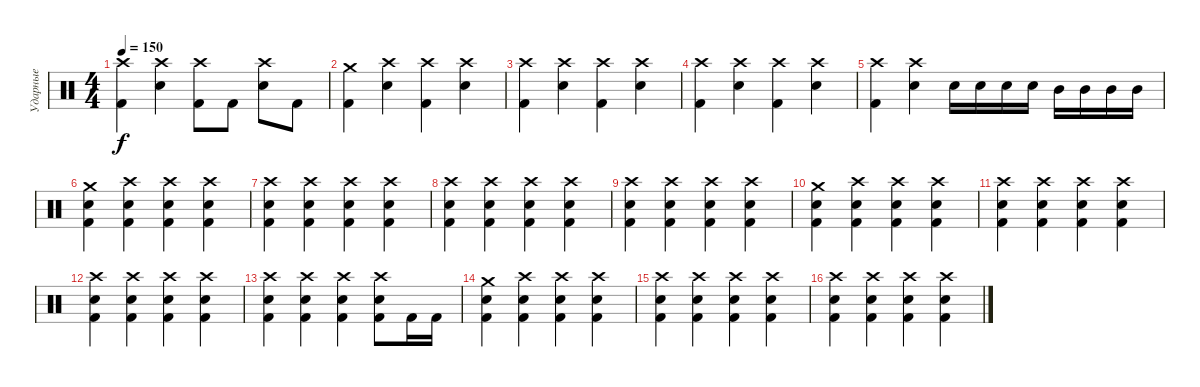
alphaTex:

\track ("Ударные" "Ударные") {instrument percussion}
\staff {score}
\articulation defaults
\ts (4 4)
\tempo 150
\clef neutral
\ks c
("Crash high (hit)" "Kick (hit) 2").4{dy f} ("Crash high (hit)" "Electric Snare (hit)").4 ("Crash high (hit)" "Kick (hit) 2").8 "Kick (hit) 2".8 ("Crash high (hit)" "Electric Snare (hit)").8 "Kick (hit) 2".8 |
("Crash medium (hit)" "Kick (hit) 2").4 ("Crash high (hit)" "Electric Snare (hit)").4 ("Crash high (hit)" "Kick (hit) 2").4 ("Crash high (hit)" "Electric Snare (hit)").4 |
("Crash high (hit)" "Kick (hit) 2").4 ("Crash high (hit)" "Electric Snare (hit)").4 ("Crash high (hit)" "Kick (hit) 2").4 ("Crash high (hit)" "Electric Snare (hit)").4 |
("Crash high (hit)" "Kick (hit) 2").4 ("Crash high (hit)" "Electric Snare (hit)").4 ("Crash high (hit)" "Kick (hit) 2").4 ("Crash high (hit)" "Electric Snare (hit)").4 |
("Crash high (hit)" "Kick (hit) 2").4 ("Crash high (hit)" "Electric Snare (hit)").4 "Electric Snare (hit)".16 "Electric Snare (hit)".16 "Electric Snare (hit)".16 "Electric Snare (hit)".16 "Mid Tom (hit)".16 "Mid Tom (hit)".16 "Mid Tom (hit)".16 "Mid Tom (hit)".16 |
("Crash medium (hit)" "Electric Snare (hit)" "Kick (hit) 2").4 ("Crash high (hit)" "Electric Snare (hit)" "Kick (hit) 2").4 ("Crash high (hit)" "Electric Snare (hit)" "Kick (hit) 2").4 ("Crash high (hit)" "Electric Snare (hit)" "Kick (hit) 2").4 |
("Crash high (hit)" "Electric Snare (hit)" "Kick (hit) 2").4 ("Crash high (hit)" "Electric Snare (hit)" "Kick (hit) 2").4 ("Crash high (hit)" "Electric Snare (hit)" "Kick (hit) 2").4 ("Crash high (hit)" "Electric Snare (hit)" "Kick (hit) 2").4 |
("Crash high (hit)" "Electric Snare (hit)" "Kick (hit) 2").4 ("Crash high (hit)" "Electric Snare (hit)" "Kick (hit) 2").4 ("Crash high (hit)" "Electric Snare (hit)" "Kick (hit) 2").4 ("Crash high (hit)" "Electric Snare (hit)" "Kick (hit) 2").4 |
("Crash high (hit)" "Electric Snare (hit)" "Kick (hit) 2").4 ("Crash high (hit)" "Electric Snare (hit)" "Kick (hit) 2").4 ("Crash high (hit)" "Electric Snare (hit)" "Kick (hit) 2").4 ("Crash high (hit)" "Electric Snare (hit)" "Kick (hit) 2").4 |
("Crash medium (hit)" "Electric Snare (hit)" "Kick (hit) 2").4 ("Crash high (hit)" "Electric Snare (hit)" "Kick (hit) 2").4 ("Crash high (hit)" "Electric Snare (hit)" "Kick (hit) 2").4 ("Crash high (hit)" "Electric Snare (hit)" "Kick (hit) 2").4 |
("Crash high (hit)" "Electric Snare (hit)" "Kick (hit) 2").4 ("Crash high (hit)" "Electric Snare (hit)" "Kick (hit) 2").4 ("Crash high (hit)" "Electric Snare (hit)" "Kick (hit) 2").4 ("Crash high (hit)" "Electric Snare (hit)" "Kick (hit) 2").4 |
("Crash high (hit)" "Electric Snare (hit)" "Kick (hit) 2").4 ("Crash high (hit)" "Electric Snare (hit)" "Kick (hit) 2").4 ("Crash high (hit)" "Electric Snare (hit)" "Kick (hit) 2").4 ("Crash high (hit)" "Electric Snare (hit)" "Kick (hit) 2").4 |
("Crash high (hit)" "Electric Snare (hit)" "Kick (hit) 2").4 ("Crash high (hit)" "Electric Snare (hit)" "Kick (hit) 2").4 ("Crash high (hit)" "Electric Snare (hit)" "Kick (hit) 2").4 ("Crash high (hit)" "Electric Snare (hit)" "Kick (hit) 2").8 "Kick (hit) 2".16 "Kick (hit) 2".16 |
("Crash medium (hit)" "Electric Snare (hit)" "Kick (hit) 2").4 ("Crash high (hit)" "Electric Snare (hit)" "Kick (hit) 2").4 ("Crash high (hit)" "Electric Snare (hit)" "Kick (hit) 2").4 ("Crash high (hit)" "Electric Snare (hit)" "Kick (hit) 2").4 |
("Crash high (hit)" "Electric Snare (hit)" "Kick (hit) 2").4 ("Crash high (hit)" "Electric Snare (hit)" "Kick (hit) 2").4 ("Crash high (hit)" "Electric Snare (hit)" "Kick (hit) 2").4 ("Crash high (hit)" "Electric Snare (hit)" "Kick (hit) 2").4 |
("Crash high (hit)" "Electric Snare (hit)" "Kick (hit) 2").4 ("Crash high (hit)" "Electric Snare (hit)" "Kick (hit) 2").4 ("Crash high (hit)" "Electric Snare (hit)" "Kick (hit) 2").4 ("Crash high (hit)" "Electric Snare (hit)" "Kick (hit) 2").4
